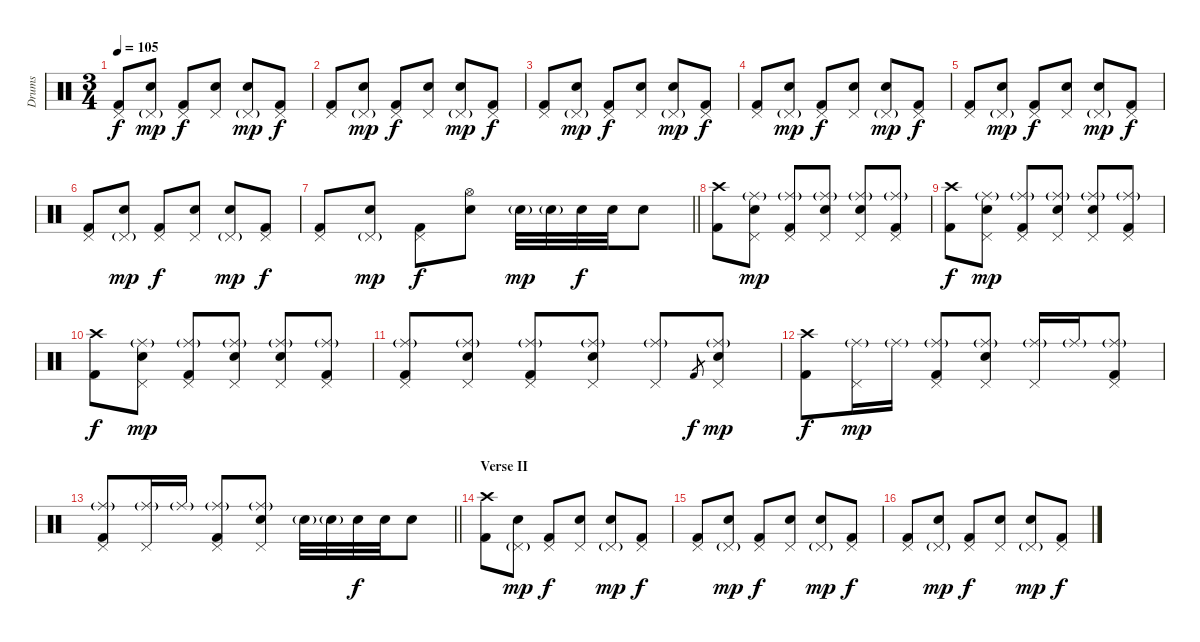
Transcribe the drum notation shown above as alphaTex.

\track ("Drums" "Drums") {instrument percussion}
\staff {score}
\articulation defaults
\ts (3 4)
\tempo 105
\clef neutral
\ks c
("Pedal Hi-Hat (hit)" "Kick (hit) 2").8{dy f} ("Pedal Hi-Hat (hit)"{g} "Snare (hit)").8{dy mp} ("Pedal Hi-Hat (hit)" "Kick (hit) 2").8{dy f} ("Pedal Hi-Hat (hit)" "Electric Snare (hit)").8 ("Pedal Hi-Hat (hit)"{g} "Snare (hit)").8{dy mp} ("Pedal Hi-Hat (hit)" "Kick (hit) 2").8{dy f} |
("Pedal Hi-Hat (hit)" "Kick (hit) 2").8 ("Pedal Hi-Hat (hit)"{g} "Snare (hit)").8{dy mp} ("Pedal Hi-Hat (hit)" "Kick (hit) 2").8{dy f} ("Pedal Hi-Hat (hit)" "Electric Snare (hit)").8 ("Pedal Hi-Hat (hit)"{g} "Snare (hit)").8{dy mp} ("Pedal Hi-Hat (hit)" "Kick (hit) 2").8{dy f} |
("Pedal Hi-Hat (hit)" "Kick (hit) 2").8 ("Pedal Hi-Hat (hit)"{g} "Snare (hit)").8{dy mp} ("Pedal Hi-Hat (hit)" "Kick (hit) 2").8{dy f} ("Pedal Hi-Hat (hit)" "Electric Snare (hit)").8 ("Pedal Hi-Hat (hit)"{g} "Snare (hit)").8{dy mp} ("Pedal Hi-Hat (hit)" "Kick (hit) 2").8{dy f} |
("Pedal Hi-Hat (hit)" "Kick (hit) 2").8 ("Pedal Hi-Hat (hit)"{g} "Snare (hit)").8{dy mp} ("Pedal Hi-Hat (hit)" "Kick (hit) 2").8{dy f} ("Pedal Hi-Hat (hit)" "Electric Snare (hit)").8 ("Pedal Hi-Hat (hit)"{g} "Snare (hit)").8{dy mp} ("Pedal Hi-Hat (hit)" "Kick (hit) 2").8{dy f} |
("Pedal Hi-Hat (hit)" "Kick (hit) 2").8 ("Pedal Hi-Hat (hit)"{g} "Snare (hit)").8{dy mp} ("Pedal Hi-Hat (hit)" "Kick (hit) 2").8{dy f} ("Pedal Hi-Hat (hit)" "Electric Snare (hit)").8 ("Pedal Hi-Hat (hit)"{g} "Snare (hit)").8{dy mp} ("Pedal Hi-Hat (hit)" "Kick (hit) 2").8{dy f} |
("Pedal Hi-Hat (hit)" "Kick (hit) 2").8 ("Pedal Hi-Hat (hit)"{g} "Snare (hit)").8{dy mp} ("Pedal Hi-Hat (hit)" "Kick (hit) 2").8{dy f} ("Pedal Hi-Hat (hit)" "Electric Snare (hit)").8 ("Pedal Hi-Hat (hit)"{g} "Snare (hit)").8{dy mp} ("Pedal Hi-Hat (hit)" "Kick (hit) 2").8{dy f} |
\barLineRight lightlight
("Pedal Hi-Hat (hit)" "Kick (hit) 2").8 ("Pedal Hi-Hat (hit)"{g} "Snare (hit)").8{dy mp} ("Pedal Hi-Hat (hit)" "Kick (hit) 2").8{dy f} ("Hi-Hat (open)" "Electric Snare (hit)").8 "Electric Snare (hit)"{g}.32{dy mp} "Electric Snare (hit)"{g}.32 "Electric Snare (hit)".32{dy f} "Electric Snare (hit)".32 "Electric Snare (hit)".8 |
\section ("" "")
("Crash high (hit)" "Kick (hit) 2").8 ("Ride (middle)"{g} "Pedal Hi-Hat (hit)" "Snare (hit)").8{dy mp} ("Ride (middle)"{g} "Pedal Hi-Hat (hit)" "Kick (hit) 2").8 ("Ride (middle)"{g} "Pedal Hi-Hat (hit)" "Electric Snare (hit)").8 ("Ride (middle)"{g} "Pedal Hi-Hat (hit)" "Snare (hit)").8 ("Ride (middle)"{g} "Pedal Hi-Hat (hit)" "Kick (hit) 2").8 |
("Crash high (hit)" "Kick (hit) 2").8{dy f} ("Ride (middle)"{g} "Pedal Hi-Hat (hit)" "Snare (hit)").8{dy mp} ("Ride (middle)"{g} "Pedal Hi-Hat (hit)" "Kick (hit) 2").8 ("Ride (middle)"{g} "Pedal Hi-Hat (hit)" "Electric Snare (hit)").8 ("Ride (middle)"{g} "Pedal Hi-Hat (hit)" "Snare (hit)").8 ("Ride (middle)"{g} "Pedal Hi-Hat (hit)" "Kick (hit) 2").8 |
("Crash high (hit)" "Kick (hit) 2").8{dy f} ("Ride (middle)"{g} "Pedal Hi-Hat (hit)" "Snare (hit)").8{dy mp} ("Ride (middle)"{g} "Pedal Hi-Hat (hit)" "Kick (hit) 2").8 ("Ride (middle)"{g} "Pedal Hi-Hat (hit)" "Electric Snare (hit)").8 ("Ride (middle)"{g} "Pedal Hi-Hat (hit)" "Snare (hit)").8 ("Ride (middle)"{g} "Pedal Hi-Hat (hit)" "Kick (hit) 2").8 |
("Ride (middle)"{g} "Pedal Hi-Hat (hit)" "Kick (hit) 2").8 ("Ride (middle)"{g} "Pedal Hi-Hat (hit)" "Snare (hit)").8 ("Ride (middle)"{g} "Pedal Hi-Hat (hit)" "Kick (hit) 2").8 ("Ride (middle)"{g} "Pedal Hi-Hat (hit)" "Electric Snare (hit)").8 ("Ride (middle)"{g} "Pedal Hi-Hat (hit)").8 "Kick (hit) 2".8{gr dy f} ("Ride (middle)"{g} "Pedal Hi-Hat (hit)" "Electric Snare (hit)").8{dy mp} |
("Crash high (hit)" "Kick (hit) 2").8{dy f} ("Ride (middle)"{g} "Pedal Hi-Hat (hit)").16{dy mp} "Ride (middle)"{g}.16 ("Ride (middle)"{g} "Pedal Hi-Hat (hit)" "Kick (hit) 2").8 ("Ride (middle)"{g} "Pedal Hi-Hat (hit)" "Electric Snare (hit)").8 ("Ride (middle)"{g} "Pedal Hi-Hat (hit)").16 "Ride (middle)"{g}.16 ("Ride (middle)"{g} "Pedal Hi-Hat (hit)" "Kick (hit) 2").8 |
\barLineRight lightlight
("Ride (middle)"{g} "Pedal Hi-Hat (hit)" "Kick (hit) 2").8 ("Ride (middle)"{g} "Pedal Hi-Hat (hit)").16 "Ride (middle)"{g}.16 ("Ride (middle)"{g} "Pedal Hi-Hat (hit)" "Kick (hit) 2").8 ("Ride (middle)"{g} "Pedal Hi-Hat (hit)" "Electric Snare (hit)").8 "Electric Snare (hit)"{g}.32 "Electric Snare (hit)"{g}.32 "Electric Snare (hit)".32{dy f} "Electric Snare (hit)".32 "Electric Snare (hit)".8 |
\section ("" "Verse II")
("Crash high (hit)" "Kick (hit) 2").8 ("Pedal Hi-Hat (hit)"{g} "Snare (hit)").8{dy mp} ("Pedal Hi-Hat (hit)" "Kick (hit) 2").8{dy f} ("Pedal Hi-Hat (hit)" "Electric Snare (hit)").8 ("Pedal Hi-Hat (hit)"{g} "Snare (hit)").8{dy mp} ("Pedal Hi-Hat (hit)" "Kick (hit) 2").8{dy f} |
("Pedal Hi-Hat (hit)" "Kick (hit) 2").8 ("Pedal Hi-Hat (hit)"{g} "Snare (hit)").8{dy mp} ("Pedal Hi-Hat (hit)" "Kick (hit) 2").8{dy f} ("Pedal Hi-Hat (hit)" "Electric Snare (hit)").8 ("Pedal Hi-Hat (hit)"{g} "Snare (hit)").8{dy mp} ("Pedal Hi-Hat (hit)" "Kick (hit) 2").8{dy f} |
("Pedal Hi-Hat (hit)" "Kick (hit) 2").8 ("Pedal Hi-Hat (hit)"{g} "Snare (hit)").8{dy mp} ("Pedal Hi-Hat (hit)" "Kick (hit) 2").8{dy f} ("Pedal Hi-Hat (hit)" "Electric Snare (hit)").8 ("Pedal Hi-Hat (hit)"{g} "Snare (hit)").8{dy mp} ("Pedal Hi-Hat (hit)" "Kick (hit) 2").8{dy f}
